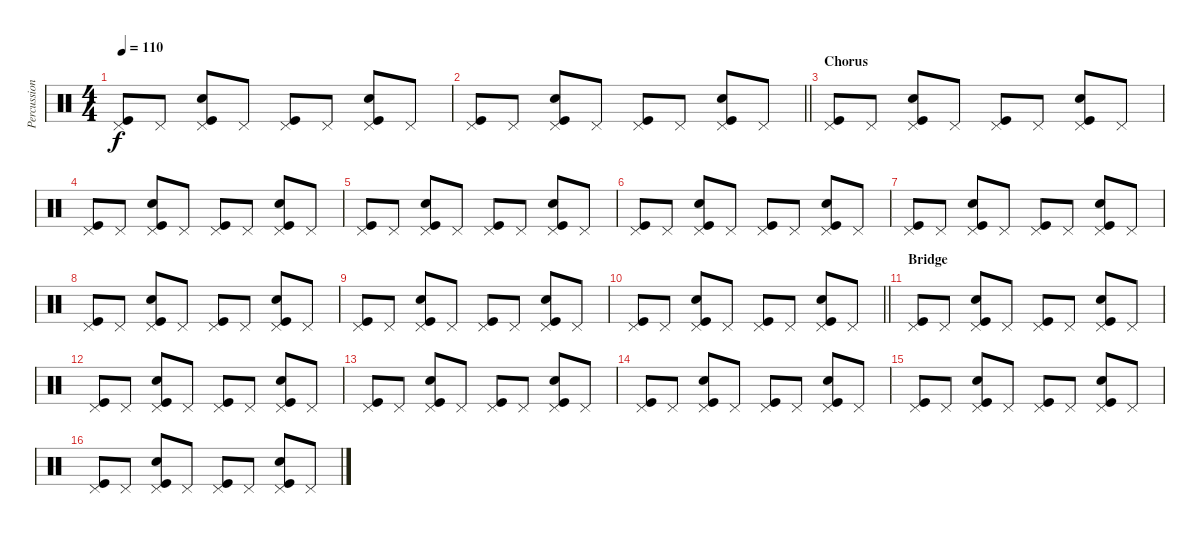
\track ("Percussion" "Percussion") {instrument percussion}
\staff {score}
\articulation defaults
\ts (4 4)
\tempo 110
\clef neutral
\ks c
("Pedal Hi-Hat (hit)" "Kick (hit)").8{dy f} "Pedal Hi-Hat (hit)".8 ("Pedal Hi-Hat (hit)" "Snare (hit) 2" "Kick (hit)").8 "Pedal Hi-Hat (hit)".8 ("Pedal Hi-Hat (hit)" "Kick (hit)").8 "Pedal Hi-Hat (hit)".8 ("Pedal Hi-Hat (hit)" "Snare (hit) 2" "Kick (hit)").8 "Pedal Hi-Hat (hit)".8 |
\barLineRight lightlight
("Pedal Hi-Hat (hit)" "Kick (hit)").8 "Pedal Hi-Hat (hit)".8 ("Pedal Hi-Hat (hit)" "Snare (hit) 2" "Kick (hit)").8 "Pedal Hi-Hat (hit)".8 ("Pedal Hi-Hat (hit)" "Kick (hit)").8 "Pedal Hi-Hat (hit)".8 ("Pedal Hi-Hat (hit)" "Snare (hit) 2" "Kick (hit)").8 "Pedal Hi-Hat (hit)".8 |
\section ("" "Chorus")
("Pedal Hi-Hat (hit)" "Kick (hit)").8 "Pedal Hi-Hat (hit)".8 ("Pedal Hi-Hat (hit)" "Snare (hit) 2" "Kick (hit)").8 "Pedal Hi-Hat (hit)".8 ("Pedal Hi-Hat (hit)" "Kick (hit)").8 "Pedal Hi-Hat (hit)".8 ("Pedal Hi-Hat (hit)" "Snare (hit) 2" "Kick (hit)").8 "Pedal Hi-Hat (hit)".8 |
("Pedal Hi-Hat (hit)" "Kick (hit)").8 "Pedal Hi-Hat (hit)".8 ("Pedal Hi-Hat (hit)" "Snare (hit) 2" "Kick (hit)").8 "Pedal Hi-Hat (hit)".8 ("Pedal Hi-Hat (hit)" "Kick (hit)").8 "Pedal Hi-Hat (hit)".8 ("Pedal Hi-Hat (hit)" "Snare (hit) 2" "Kick (hit)").8 "Pedal Hi-Hat (hit)".8 |
("Pedal Hi-Hat (hit)" "Kick (hit)").8 "Pedal Hi-Hat (hit)".8 ("Pedal Hi-Hat (hit)" "Snare (hit) 2" "Kick (hit)").8 "Pedal Hi-Hat (hit)".8 ("Pedal Hi-Hat (hit)" "Kick (hit)").8 "Pedal Hi-Hat (hit)".8 ("Pedal Hi-Hat (hit)" "Snare (hit) 2" "Kick (hit)").8 "Pedal Hi-Hat (hit)".8 |
("Pedal Hi-Hat (hit)" "Kick (hit)").8 "Pedal Hi-Hat (hit)".8 ("Pedal Hi-Hat (hit)" "Snare (hit) 2" "Kick (hit)").8 "Pedal Hi-Hat (hit)".8 ("Pedal Hi-Hat (hit)" "Kick (hit)").8 "Pedal Hi-Hat (hit)".8 ("Pedal Hi-Hat (hit)" "Snare (hit) 2" "Kick (hit)").8 "Pedal Hi-Hat (hit)".8 |
("Pedal Hi-Hat (hit)" "Kick (hit)").8 "Pedal Hi-Hat (hit)".8 ("Pedal Hi-Hat (hit)" "Snare (hit) 2" "Kick (hit)").8 "Pedal Hi-Hat (hit)".8 ("Pedal Hi-Hat (hit)" "Kick (hit)").8 "Pedal Hi-Hat (hit)".8 ("Pedal Hi-Hat (hit)" "Snare (hit) 2" "Kick (hit)").8 "Pedal Hi-Hat (hit)".8 |
("Pedal Hi-Hat (hit)" "Kick (hit)").8 "Pedal Hi-Hat (hit)".8 ("Pedal Hi-Hat (hit)" "Snare (hit) 2" "Kick (hit)").8 "Pedal Hi-Hat (hit)".8 ("Pedal Hi-Hat (hit)" "Kick (hit)").8 "Pedal Hi-Hat (hit)".8 ("Pedal Hi-Hat (hit)" "Snare (hit) 2" "Kick (hit)").8 "Pedal Hi-Hat (hit)".8 |
("Pedal Hi-Hat (hit)" "Kick (hit)").8 "Pedal Hi-Hat (hit)".8 ("Pedal Hi-Hat (hit)" "Snare (hit) 2" "Kick (hit)").8 "Pedal Hi-Hat (hit)".8 ("Pedal Hi-Hat (hit)" "Kick (hit)").8 "Pedal Hi-Hat (hit)".8 ("Pedal Hi-Hat (hit)" "Snare (hit) 2" "Kick (hit)").8 "Pedal Hi-Hat (hit)".8 |
\barLineRight lightlight
("Pedal Hi-Hat (hit)" "Kick (hit)").8 "Pedal Hi-Hat (hit)".8 ("Pedal Hi-Hat (hit)" "Snare (hit) 2" "Kick (hit)").8 "Pedal Hi-Hat (hit)".8 ("Pedal Hi-Hat (hit)" "Kick (hit)").8 "Pedal Hi-Hat (hit)".8 ("Pedal Hi-Hat (hit)" "Snare (hit) 2" "Kick (hit)").8 "Pedal Hi-Hat (hit)".8 |
\section ("" "Bridge")
("Pedal Hi-Hat (hit)" "Kick (hit)").8 "Pedal Hi-Hat (hit)".8 ("Pedal Hi-Hat (hit)" "Snare (hit) 2" "Kick (hit)").8 "Pedal Hi-Hat (hit)".8 ("Pedal Hi-Hat (hit)" "Kick (hit)").8 "Pedal Hi-Hat (hit)".8 ("Pedal Hi-Hat (hit)" "Snare (hit) 2" "Kick (hit)").8 "Pedal Hi-Hat (hit)".8 |
("Pedal Hi-Hat (hit)" "Kick (hit)").8 "Pedal Hi-Hat (hit)".8 ("Pedal Hi-Hat (hit)" "Snare (hit) 2" "Kick (hit)").8 "Pedal Hi-Hat (hit)".8 ("Pedal Hi-Hat (hit)" "Kick (hit)").8 "Pedal Hi-Hat (hit)".8 ("Pedal Hi-Hat (hit)" "Snare (hit) 2" "Kick (hit)").8 "Pedal Hi-Hat (hit)".8 |
("Pedal Hi-Hat (hit)" "Kick (hit)").8 "Pedal Hi-Hat (hit)".8 ("Pedal Hi-Hat (hit)" "Snare (hit) 2" "Kick (hit)").8 "Pedal Hi-Hat (hit)".8 ("Pedal Hi-Hat (hit)" "Kick (hit)").8 "Pedal Hi-Hat (hit)".8 ("Pedal Hi-Hat (hit)" "Snare (hit) 2" "Kick (hit)").8 "Pedal Hi-Hat (hit)".8 |
("Pedal Hi-Hat (hit)" "Kick (hit)").8 "Pedal Hi-Hat (hit)".8 ("Pedal Hi-Hat (hit)" "Snare (hit) 2" "Kick (hit)").8 "Pedal Hi-Hat (hit)".8 ("Pedal Hi-Hat (hit)" "Kick (hit)").8 "Pedal Hi-Hat (hit)".8 ("Pedal Hi-Hat (hit)" "Snare (hit) 2" "Kick (hit)").8 "Pedal Hi-Hat (hit)".8 |
("Pedal Hi-Hat (hit)" "Kick (hit)").8 "Pedal Hi-Hat (hit)".8 ("Pedal Hi-Hat (hit)" "Snare (hit) 2" "Kick (hit)").8 "Pedal Hi-Hat (hit)".8 ("Pedal Hi-Hat (hit)" "Kick (hit)").8 "Pedal Hi-Hat (hit)".8 ("Pedal Hi-Hat (hit)" "Snare (hit) 2" "Kick (hit)").8 "Pedal Hi-Hat (hit)".8 |
("Pedal Hi-Hat (hit)" "Kick (hit)").8 "Pedal Hi-Hat (hit)".8 ("Pedal Hi-Hat (hit)" "Snare (hit) 2" "Kick (hit)").8 "Pedal Hi-Hat (hit)".8 ("Pedal Hi-Hat (hit)" "Kick (hit)").8 "Pedal Hi-Hat (hit)".8 ("Pedal Hi-Hat (hit)" "Snare (hit) 2" "Kick (hit)").8 "Pedal Hi-Hat (hit)".8
